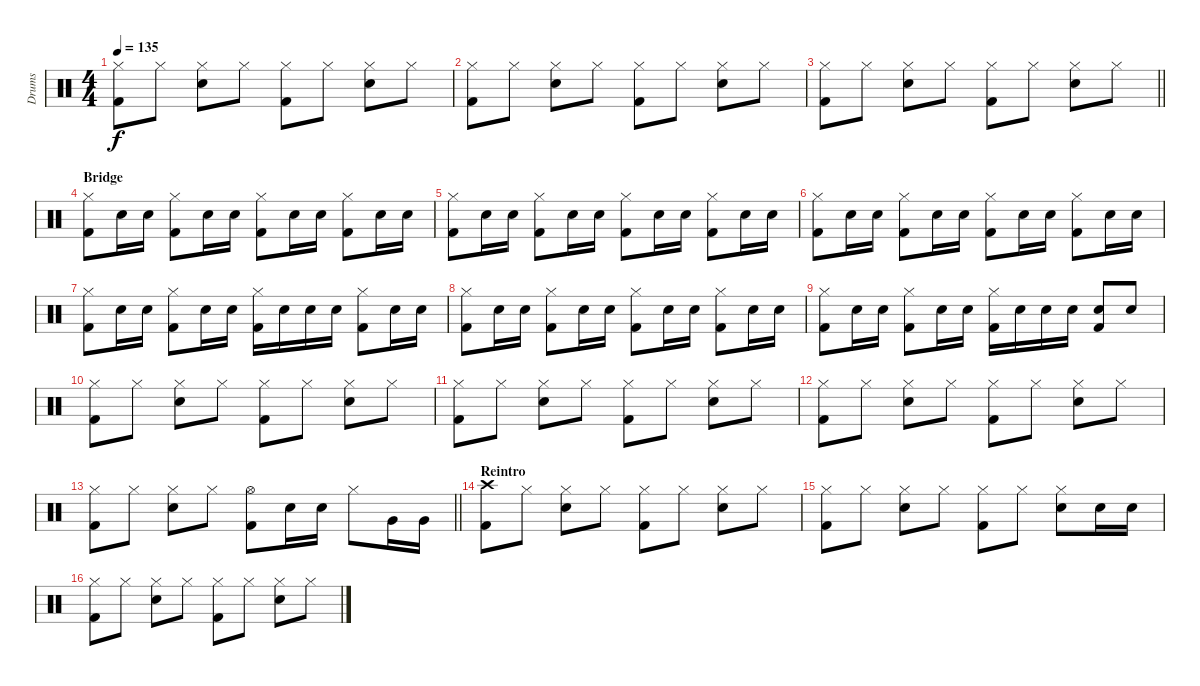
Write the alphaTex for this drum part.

\track ("Drums" "Drums") {instrument percussion}
\staff {score}
\articulation defaults
\ts (4 4)
\tempo 135
\clef neutral
\ks c
("Hi-Hat (closed)" "Kick (hit) 2").8{dy f} "Hi-Hat (closed)".8 ("Hi-Hat (closed)" "Snare (hit) 2").8 "Hi-Hat (closed)".8 ("Hi-Hat (closed)" "Kick (hit) 2").8 "Hi-Hat (closed)".8 ("Hi-Hat (closed)" "Snare (hit) 2").8 "Hi-Hat (closed)".8 |
("Hi-Hat (closed)" "Kick (hit) 2").8 "Hi-Hat (closed)".8 ("Hi-Hat (closed)" "Snare (hit) 2").8 "Hi-Hat (closed)".8 ("Hi-Hat (closed)" "Kick (hit) 2").8 "Hi-Hat (closed)".8 ("Hi-Hat (closed)" "Snare (hit) 2").8 "Hi-Hat (closed)".8 |
\barLineRight lightlight
("Hi-Hat (closed)" "Kick (hit) 2").8 "Hi-Hat (closed)".8 ("Hi-Hat (closed)" "Snare (hit) 2").8 "Hi-Hat (closed)".8 ("Hi-Hat (closed)" "Kick (hit) 2").8 "Hi-Hat (closed)".8 ("Hi-Hat (closed)" "Snare (hit) 2").8 "Hi-Hat (closed)".8 |
\section ("" "Bridge")
("Hi-Hat (closed)" "Kick (hit) 2").8 "Snare (hit) 2".16 "Snare (hit) 2".16 ("Hi-Hat (closed)" "Kick (hit) 2").8 "Snare (hit) 2".16 "Snare (hit) 2".16 ("Hi-Hat (closed)" "Kick (hit) 2").8 "Snare (hit) 2".16 "Snare (hit) 2".16 ("Hi-Hat (closed)" "Kick (hit) 2").8 "Snare (hit) 2".16 "Snare (hit) 2".16 |
("Hi-Hat (closed)" "Kick (hit) 2").8 "Snare (hit) 2".16 "Snare (hit) 2".16 ("Hi-Hat (closed)" "Kick (hit) 2").8 "Snare (hit) 2".16 "Snare (hit) 2".16 ("Hi-Hat (closed)" "Kick (hit) 2").8 "Snare (hit) 2".16 "Snare (hit) 2".16 ("Hi-Hat (closed)" "Kick (hit) 2").8 "Snare (hit) 2".16 "Snare (hit) 2".16 |
("Hi-Hat (closed)" "Kick (hit) 2").8 "Snare (hit) 2".16 "Snare (hit) 2".16 ("Hi-Hat (closed)" "Kick (hit) 2").8 "Snare (hit) 2".16 "Snare (hit) 2".16 ("Hi-Hat (closed)" "Kick (hit) 2").8 "Snare (hit) 2".16 "Snare (hit) 2".16 ("Hi-Hat (closed)" "Kick (hit) 2").8 "Snare (hit) 2".16 "Snare (hit) 2".16 |
("Hi-Hat (closed)" "Kick (hit) 2").8 "Snare (hit) 2".16 "Snare (hit) 2".16 ("Hi-Hat (closed)" "Kick (hit) 2").8 "Snare (hit) 2".16 "Snare (hit) 2".16 ("Hi-Hat (closed)" "Kick (hit) 2").16 "Snare (hit) 2".16 "Snare (hit) 2".16 "Snare (hit) 2".16 ("Hi-Hat (closed)" "Kick (hit) 2").8 "Snare (hit) 2".16 "Snare (hit) 2".16 |
("Hi-Hat (closed)" "Kick (hit) 2").8 "Snare (hit) 2".16 "Snare (hit) 2".16 ("Hi-Hat (closed)" "Kick (hit) 2").8 "Snare (hit) 2".16 "Snare (hit) 2".16 ("Hi-Hat (closed)" "Kick (hit) 2").8 "Snare (hit) 2".16 "Snare (hit) 2".16 ("Hi-Hat (closed)" "Kick (hit) 2").8 "Snare (hit) 2".16 "Snare (hit) 2".16 |
("Hi-Hat (closed)" "Kick (hit) 2").8 "Snare (hit) 2".16 "Snare (hit) 2".16 ("Hi-Hat (closed)" "Kick (hit) 2").8 "Snare (hit) 2".16 "Snare (hit) 2".16 ("Hi-Hat (closed)" "Kick (hit) 2").16 "Snare (hit) 2".16 "Snare (hit) 2".16 "Snare (hit) 2".16 ("Snare (hit) 2" "Kick (hit) 2").8 "Snare (hit) 2".8 |
("Hi-Hat (closed)" "Kick (hit) 2").8 "Hi-Hat (closed)".8 ("Hi-Hat (closed)" "Snare (hit) 2").8 "Hi-Hat (closed)".8 ("Hi-Hat (closed)" "Kick (hit) 2").8 "Hi-Hat (closed)".8 ("Hi-Hat (closed)" "Snare (hit) 2").8 "Hi-Hat (closed)".8 |
("Hi-Hat (closed)" "Kick (hit) 2").8 "Hi-Hat (closed)".8 ("Hi-Hat (closed)" "Snare (hit) 2").8 "Hi-Hat (closed)".8 ("Hi-Hat (closed)" "Kick (hit) 2").8 "Hi-Hat (closed)".8 ("Hi-Hat (closed)" "Snare (hit) 2").8 "Hi-Hat (closed)".8 |
("Hi-Hat (closed)" "Kick (hit) 2").8 "Hi-Hat (closed)".8 ("Hi-Hat (closed)" "Snare (hit) 2").8 "Hi-Hat (closed)".8 ("Hi-Hat (closed)" "Kick (hit) 2").8 "Hi-Hat (closed)".8 ("Hi-Hat (closed)" "Snare (hit) 2").8 "Hi-Hat (closed)".8 |
\barLineRight lightlight
("Hi-Hat (closed)" "Kick (hit) 2").8 "Hi-Hat (closed)".8 ("Hi-Hat (closed)" "Snare (hit) 2").8 "Hi-Hat (closed)".8 ("Hi-Hat (open)" "Kick (hit) 2").8 "Snare (hit) 2".16 "Snare (hit) 2".16 "Hi-Hat (closed)".8 "Very Low Tom (hit)".16 "Very Low Tom (hit)".16 |
\section ("" "Reintro")
("Crash high (hit)" "Kick (hit) 2").8 "Hi-Hat (closed)".8 ("Hi-Hat (closed)" "Snare (hit) 2").8 "Hi-Hat (closed)".8 ("Hi-Hat (closed)" "Kick (hit) 2").8 "Hi-Hat (closed)".8 ("Hi-Hat (closed)" "Snare (hit) 2").8 "Hi-Hat (closed)".8 |
("Hi-Hat (closed)" "Kick (hit) 2").8 "Hi-Hat (closed)".8 ("Hi-Hat (closed)" "Snare (hit) 2").8 "Hi-Hat (closed)".8 ("Hi-Hat (closed)" "Kick (hit) 2").8 "Hi-Hat (closed)".8 ("Hi-Hat (closed)" "Snare (hit) 2").8 "Snare (hit) 2".16 "Snare (hit) 2".16 |
("Hi-Hat (closed)" "Kick (hit) 2").8 "Hi-Hat (closed)".8 ("Hi-Hat (closed)" "Snare (hit) 2").8 "Hi-Hat (closed)".8 ("Hi-Hat (closed)" "Kick (hit) 2").8 "Hi-Hat (closed)".8 ("Hi-Hat (closed)" "Snare (hit) 2").8 "Hi-Hat (closed)".8
